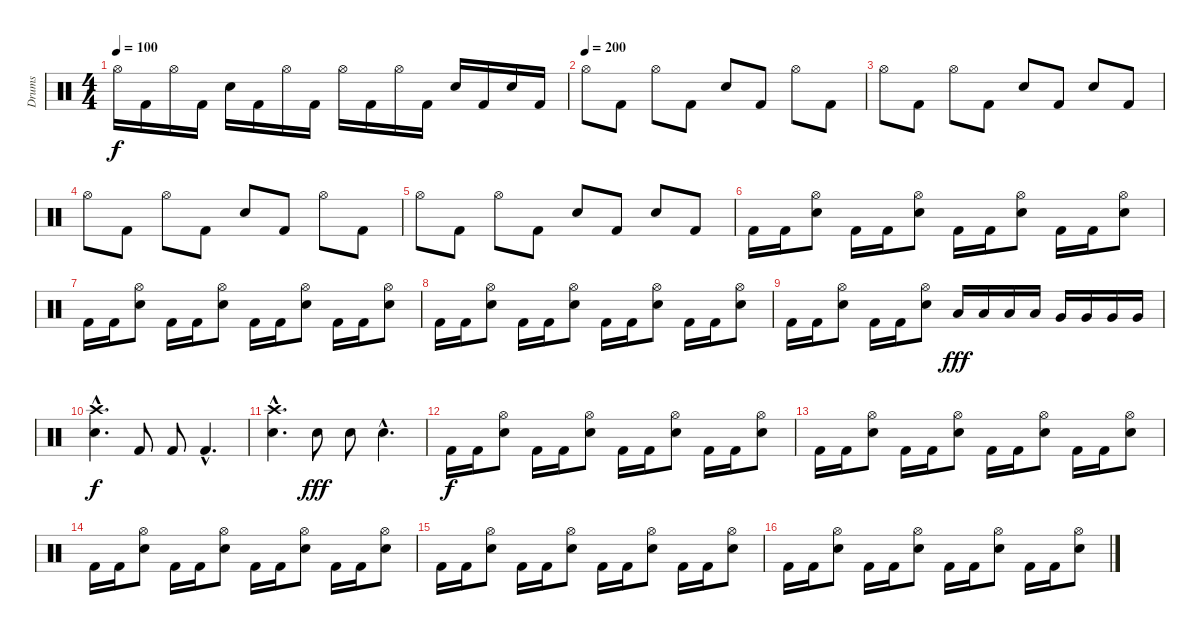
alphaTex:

\track ("Drums" "Drums") {instrument percussion}
\staff {score}
\articulation defaults
\ts (4 4)
\tempo 100
\clef neutral
\ks c "Hi-Hat (open)".16{dy f} "Kick (hit) 2".16 "Hi-Hat (open)".16 "Kick (hit) 2".16 "Snare (hit) 2".16 "Kick (hit) 2".16 "Hi-Hat (open)".16 "Kick (hit) 2".16 "Hi-Hat (open)".16 "Kick (hit) 2".16 "Hi-Hat (open)".16 "Kick (hit) 2".16 "Snare (hit) 2".16 "Kick (hit) 2".16 "Snare (hit) 2".16 "Kick (hit) 2".16
|
\tempo (200)
"Hi-Hat (open)".8 "Kick (hit) 2".8 "Hi-Hat (open)".8 "Kick (hit) 2".8 "Snare (hit) 2".8 "Kick (hit) 2".8 "Hi-Hat (open)".8 "Kick (hit) 2".8 |
"Hi-Hat (open)".8 "Kick (hit) 2".8 "Hi-Hat (open)".8 "Kick (hit) 2".8 "Snare (hit) 2".8 "Kick (hit) 2".8 "Snare (hit) 2".8 "Kick (hit) 2".8 |
"Hi-Hat (open)".8 "Kick (hit) 2".8 "Hi-Hat (open)".8 "Kick (hit) 2".8 "Snare (hit) 2".8 "Kick (hit) 2".8 "Hi-Hat (open)".8 "Kick (hit) 2".8 |
"Hi-Hat (open)".8 "Kick (hit) 2".8 "Hi-Hat (open)".8 "Kick (hit) 2".8 "Snare (hit) 2".8 "Kick (hit) 2".8 "Snare (hit) 2".8 "Kick (hit) 2".8 |
"Kick (hit) 2".16 "Kick (hit) 2".16 ("Hi-Hat (open)" "Snare (hit) 2").8 "Kick (hit) 2".16 "Kick (hit) 2".16 ("Hi-Hat (open)" "Snare (hit) 2").8 "Kick (hit) 2".16 "Kick (hit) 2".16 ("Hi-Hat (open)" "Snare (hit) 2").8 "Kick (hit) 2".16 "Kick (hit) 2".16 ("Hi-Hat (open)" "Snare (hit) 2").8 |
"Kick (hit) 2".16 "Kick (hit) 2".16 ("Hi-Hat (open)" "Snare (hit) 2").8 "Kick (hit) 2".16 "Kick (hit) 2".16 ("Hi-Hat (open)" "Snare (hit) 2").8 "Kick (hit) 2".16 "Kick (hit) 2".16 ("Hi-Hat (open)" "Snare (hit) 2").8 "Kick (hit) 2".16 "Kick (hit) 2".16 ("Hi-Hat (open)" "Snare (hit) 2").8 |
"Kick (hit) 2".16 "Kick (hit) 2".16 ("Hi-Hat (open)" "Snare (hit) 2").8 "Kick (hit) 2".16 "Kick (hit) 2".16 ("Hi-Hat (open)" "Snare (hit) 2").8 "Kick (hit) 2".16 "Kick (hit) 2".16 ("Hi-Hat (open)" "Snare (hit) 2").8 "Kick (hit) 2".16 "Kick (hit) 2".16 ("Hi-Hat (open)" "Snare (hit) 2").8 |
"Kick (hit) 2".16 "Kick (hit) 2".16 ("Hi-Hat (open)" "Snare (hit) 2").8 "Kick (hit) 2".16 "Kick (hit) 2".16 ("Hi-Hat (open)" "Snare (hit) 2").8 "Low Floor Tom (hit)".16{dy fff} "Low Floor Tom (hit)".16 "Low Floor Tom (hit)".16 "Low Floor Tom (hit)".16 "Very Low Tom (hit)".16 "Very Low Tom (hit)".16 "Very Low Tom (hit)".16 "Very Low Tom (hit)".16 |
("Crash high (hit)"{hac} "Snare (hit) 2"{hac}).4{d dy f} "Kick (hit) 2".8 "Kick (hit) 2".8 "Kick (hit) 2"{hac}.4{d} |
("Crash high (hit)"{hac} "Snare (hit) 2"{hac}).4{d} "Snare (hit) 2".8{dy fff} "Snare (hit) 2".8 "Snare (hit) 2"{hac}.4{d} |
"Kick (hit) 2".16{dy f} "Kick (hit) 2".16 ("Hi-Hat (open)" "Snare (hit) 2").8 "Kick (hit) 2".16 "Kick (hit) 2".16 ("Hi-Hat (open)" "Snare (hit) 2").8 "Kick (hit) 2".16 "Kick (hit) 2".16 ("Hi-Hat (open)" "Snare (hit) 2").8 "Kick (hit) 2".16 "Kick (hit) 2".16 ("Hi-Hat (open)" "Snare (hit) 2").8 |
"Kick (hit) 2".16 "Kick (hit) 2".16 ("Hi-Hat (open)" "Snare (hit) 2").8 "Kick (hit) 2".16 "Kick (hit) 2".16 ("Hi-Hat (open)" "Snare (hit) 2").8 "Kick (hit) 2".16 "Kick (hit) 2".16 ("Hi-Hat (open)" "Snare (hit) 2").8 "Kick (hit) 2".16 "Kick (hit) 2".16 ("Hi-Hat (open)" "Snare (hit) 2").8 |
"Kick (hit) 2".16 "Kick (hit) 2".16 ("Hi-Hat (open)" "Snare (hit) 2").8 "Kick (hit) 2".16 "Kick (hit) 2".16 ("Hi-Hat (open)" "Snare (hit) 2").8 "Kick (hit) 2".16 "Kick (hit) 2".16 ("Hi-Hat (open)" "Snare (hit) 2").8 "Kick (hit) 2".16 "Kick (hit) 2".16 ("Hi-Hat (open)" "Snare (hit) 2").8 |
"Kick (hit) 2".16 "Kick (hit) 2".16 ("Hi-Hat (open)" "Snare (hit) 2").8 "Kick (hit) 2".16 "Kick (hit) 2".16 ("Hi-Hat (open)" "Snare (hit) 2").8 "Kick (hit) 2".16 "Kick (hit) 2".16 ("Hi-Hat (open)" "Snare (hit) 2").8 "Kick (hit) 2".16 "Kick (hit) 2".16 ("Hi-Hat (open)" "Snare (hit) 2").8 |
"Kick (hit) 2".16 "Kick (hit) 2".16 ("Hi-Hat (open)" "Snare (hit) 2").8 "Kick (hit) 2".16 "Kick (hit) 2".16 ("Hi-Hat (open)" "Snare (hit) 2").8 "Kick (hit) 2".16 "Kick (hit) 2".16 ("Hi-Hat (open)" "Snare (hit) 2").8 "Kick (hit) 2".16 "Kick (hit) 2".16 ("Hi-Hat (open)" "Snare (hit) 2").8
